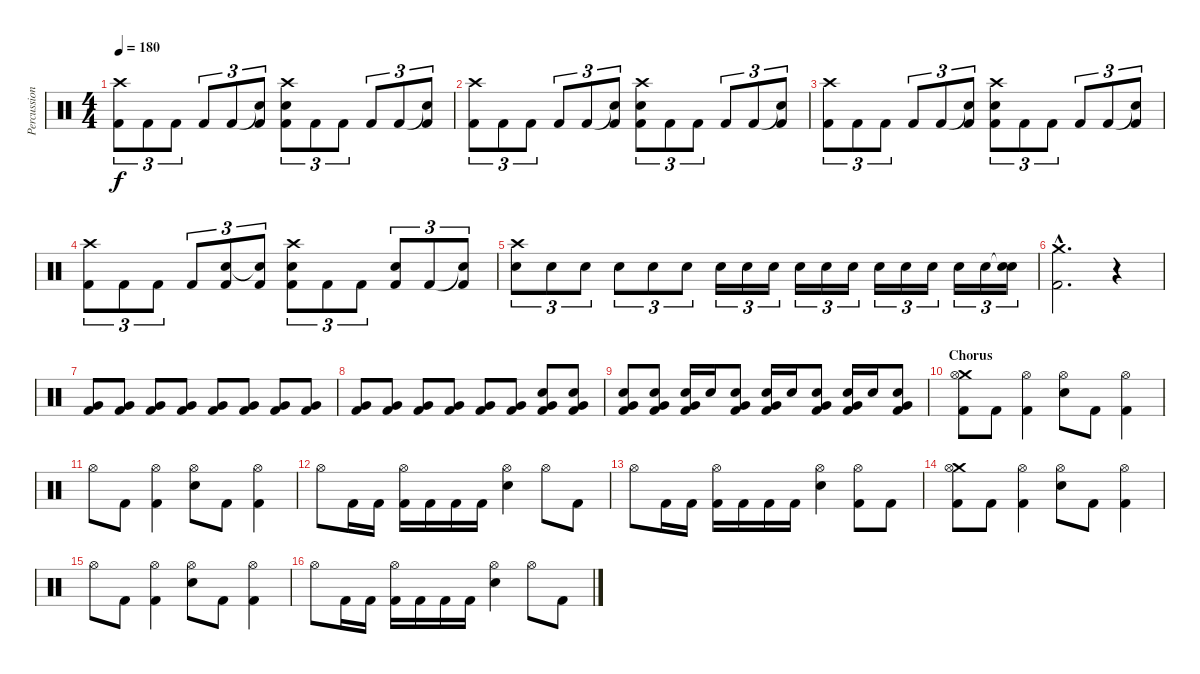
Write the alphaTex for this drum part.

\track ("Percussion" "Percussion") {instrument percussion}
\staff {score}
\articulation defaults
\ts (4 4)
\tempo 180
\clef neutral
\ks c
("Crash high (hit)" "Kick (hit) 2").8{tu (3 2) dy f} "Kick (hit) 2".8{tu (3 2)} "Kick (hit) 2".8{tu (3 2)} "Kick (hit) 2".8{tu (3 2)} "Kick (hit) 2".8{tu (3 2)} ("Snare (hit)"{t} "Kick (hit) 2").8{tu (3 2)} ("Crash high (hit)" "Snare (hit) 2" "Kick (hit) 2").8{tu (3 2)} "Kick (hit) 2".8{tu (3 2)} "Kick (hit) 2".8{tu (3 2)} "Kick (hit) 2".8{tu (3 2)} "Kick (hit) 2".8{tu (3 2)} ("Snare (hit)"{t} "Kick (hit) 2").8{tu (3 2)} |
("Crash high (hit)" "Kick (hit) 2").8{tu (3 2)} "Kick (hit) 2".8{tu (3 2)} "Kick (hit) 2".8{tu (3 2)} "Kick (hit) 2".8{tu (3 2)} "Kick (hit) 2".8{tu (3 2)} ("Snare (hit)"{t} "Kick (hit) 2").8{tu (3 2)} ("Crash high (hit)" "Snare (hit) 2" "Kick (hit) 2").8{tu (3 2)} "Kick (hit) 2".8{tu (3 2)} "Kick (hit) 2".8{tu (3 2)} "Kick (hit) 2".8{tu (3 2)} "Kick (hit) 2".8{tu (3 2)} ("Snare (hit)"{t} "Kick (hit) 2").8{tu (3 2)} |
("Crash high (hit)" "Kick (hit) 2").8{tu (3 2)} "Kick (hit) 2".8{tu (3 2)} "Kick (hit) 2".8{tu (3 2)} "Kick (hit) 2".8{tu (3 2)} "Kick (hit) 2".8{tu (3 2)} ("Snare (hit)"{t} "Kick (hit) 2").8{tu (3 2)} ("Crash high (hit)" "Snare (hit) 2" "Kick (hit) 2").8{tu (3 2)} "Kick (hit) 2".8{tu (3 2)} "Kick (hit) 2".8{tu (3 2)} "Kick (hit) 2".8{tu (3 2)} "Kick (hit) 2".8{tu (3 2)} ("Snare (hit)"{t} "Kick (hit) 2").8{tu (3 2)} |
("Crash high (hit)" "Kick (hit) 2").8{tu (3 2)} "Kick (hit) 2".8{tu (3 2)} "Kick (hit) 2".8{tu (3 2)} "Kick (hit) 2".8{tu (3 2)} ("Snare (hit) 2" "Kick (hit) 2").8{tu (3 2)} ("Snare (hit)"{t} "Kick (hit) 2").8{tu (3 2)} ("Crash high (hit)" "Snare (hit) 2" "Kick (hit) 2").8{tu (3 2)} "Kick (hit) 2".8{tu (3 2)} "Kick (hit) 2".8{tu (3 2)} ("Snare (hit) 2" "Kick (hit) 2").8{tu (3 2)} "Kick (hit) 2".8{tu (3 2)} ("Snare (hit)"{t} "Kick (hit) 2").8{tu (3 2)} |
("Crash high (hit)" "Snare (hit) 2").8{tu (3 2)} "Snare (hit) 2".8{tu (3 2)} "Snare (hit) 2".8{tu (3 2)} "Snare (hit) 2".8{tu (3 2)} "Snare (hit) 2".8{tu (3 2)} "Snare (hit) 2".8{tu (3 2)} "Electric Snare (hit)".16{tu (3 2)} "Electric Snare (hit)".16{tu (3 2)} "Electric Snare (hit)".16{tu (3 2)} "Electric Snare (hit)".16{tu (3 2)} "Electric Snare (hit)".16{tu (3 2)} "Electric Snare (hit)".16{tu (3 2)} "Electric Snare (hit)".16{tu (3 2)} "Electric Snare (hit)".16{tu (3 2)} "Electric Snare (hit)".16{tu (3 2)} "Electric Snare (hit)".16{tu (3 2)} "Electric Snare (hit)".16{tu (3 2)} ("Snare (hit)"{t} "Electric Snare (hit)").16{tu (3 2)} |
("Crash medium (hit)"{hac} "Kick (hit) 2"{hac}).2{d} r.4{volume 6} |
("Very Low Tom (hit)" "Kick (hit) 2").8{volume 13} ("Very Low Tom (hit)" "Kick (hit) 2").8 ("Very Low Tom (hit)" "Kick (hit) 2").8 ("Very Low Tom (hit)" "Kick (hit) 2").8 ("Very Low Tom (hit)" "Kick (hit) 2").8 ("Very Low Tom (hit)" "Kick (hit) 2").8 ("Very Low Tom (hit)" "Kick (hit) 2").8 ("Very Low Tom (hit)" "Kick (hit) 2").8 |
("Very Low Tom (hit)" "Kick (hit) 2").8 ("Very Low Tom (hit)" "Kick (hit) 2").8 ("Very Low Tom (hit)" "Kick (hit) 2").8 ("Very Low Tom (hit)" "Kick (hit) 2").8 ("Very Low Tom (hit)" "Kick (hit) 2").8 ("Very Low Tom (hit)" "Kick (hit) 2").8 ("Electric Snare (hit)" "Very Low Tom (hit)" "Kick (hit) 2").8 ("Electric Snare (hit)" "Very Low Tom (hit)" "Kick (hit) 2").8 |
("Electric Snare (hit)" "Very Low Tom (hit)" "Kick (hit) 2").8 ("Electric Snare (hit)" "Very Low Tom (hit)" "Kick (hit) 2").8 ("Electric Snare (hit)" "Very Low Tom (hit)" "Kick (hit) 2").16 "Electric Snare (hit)".16 ("Electric Snare (hit)" "Very Low Tom (hit)" "Kick (hit) 2").8 ("Electric Snare (hit)" "Very Low Tom (hit)" "Kick (hit) 2").16 "Electric Snare (hit)".16 ("Electric Snare (hit)" "Very Low Tom (hit)" "Kick (hit) 2").8 ("Electric Snare (hit)" "Very Low Tom (hit)" "Kick (hit) 2").16 "Electric Snare (hit)".16 ("Electric Snare (hit)" "Very Low Tom (hit)" "Kick (hit) 2").8 |
\section ("" "Chorus")
("Crash medium (hit)" "Hi-Hat (open)" "Kick (hit) 2").8 "Kick (hit) 2".8 ("Hi-Hat (open)" "Kick (hit) 2").4 ("Hi-Hat (open)" "Electric Snare (hit)").8 "Kick (hit) 2".8 ("Hi-Hat (open)" "Kick (hit) 2").4 |
"Hi-Hat (open)".8 "Kick (hit) 2".8 ("Hi-Hat (open)" "Kick (hit) 2").4 ("Hi-Hat (open)" "Electric Snare (hit)").8 "Kick (hit) 2".8 ("Hi-Hat (open)" "Kick (hit) 2").4 |
"Hi-Hat (open)".8 "Kick (hit) 2".16 "Kick (hit) 2".16 ("Hi-Hat (open)" "Kick (hit) 2").16 "Kick (hit) 2".16 "Kick (hit) 2".16 "Kick (hit) 2".16 ("Hi-Hat (open)" "Electric Snare (hit)").4 "Hi-Hat (open)".8 "Kick (hit) 2".8 |
"Hi-Hat (open)".8 "Kick (hit) 2".16 "Kick (hit) 2".16 ("Hi-Hat (open)" "Kick (hit) 2").16 "Kick (hit) 2".16 "Kick (hit) 2".16 "Kick (hit) 2".16 ("Hi-Hat (open)" "Electric Snare (hit)").4 ("Hi-Hat (open)" "Kick (hit) 2").8 "Kick (hit) 2".8 |
("Crash medium (hit)" "Hi-Hat (open)" "Kick (hit) 2").8 "Kick (hit) 2".8 ("Hi-Hat (open)" "Kick (hit) 2").4 ("Hi-Hat (open)" "Electric Snare (hit)").8 "Kick (hit) 2".8 ("Hi-Hat (open)" "Kick (hit) 2").4 |
"Hi-Hat (open)".8 "Kick (hit) 2".8 ("Hi-Hat (open)" "Kick (hit) 2").4 ("Hi-Hat (open)" "Electric Snare (hit)").8 "Kick (hit) 2".8 ("Hi-Hat (open)" "Kick (hit) 2").4 |
"Hi-Hat (open)".8 "Kick (hit) 2".16 "Kick (hit) 2".16 ("Hi-Hat (open)" "Kick (hit) 2").16 "Kick (hit) 2".16 "Kick (hit) 2".16 "Kick (hit) 2".16 ("Hi-Hat (open)" "Electric Snare (hit)").4 "Hi-Hat (open)".8 "Kick (hit) 2".8
